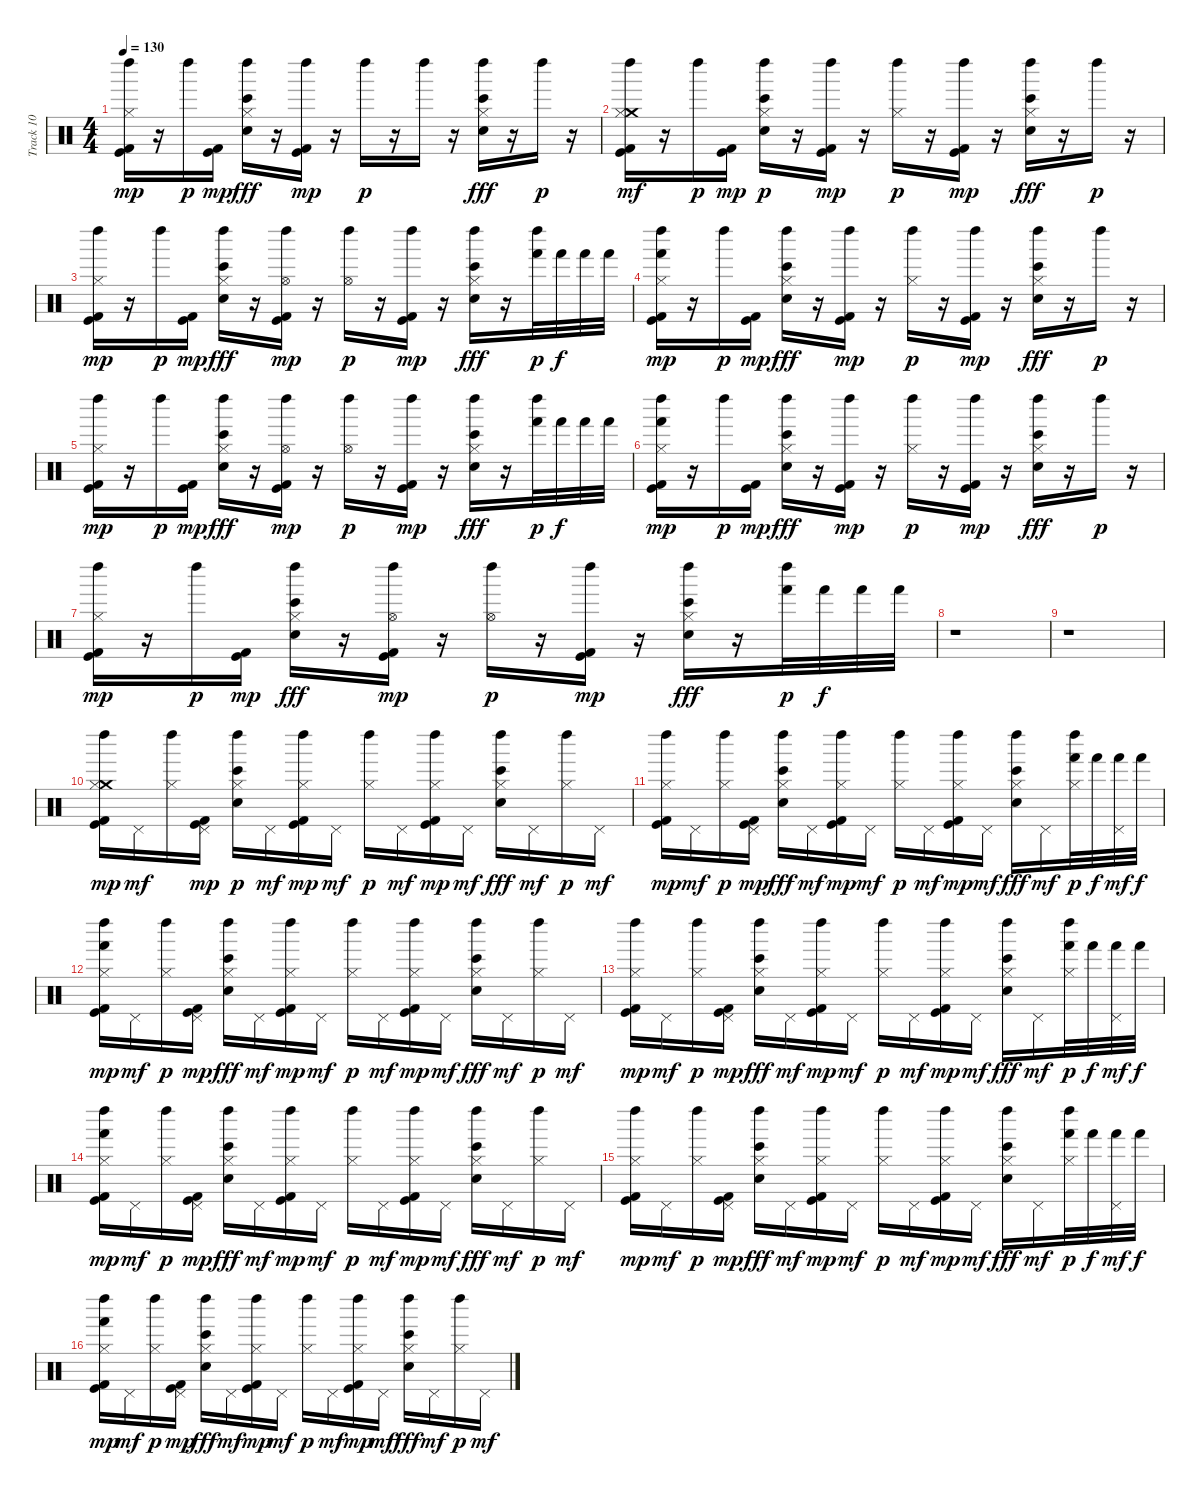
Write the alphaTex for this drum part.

\track ("Track 10" "Track 10") {instrument percussion}
\staff {score}
\articulation defaults
\ts (4 4)
\tempo 130
\clef neutral
\ks c
("Hi-Hat (closed)" "Left Maraca (hit)" "Kick (hit) 2" "Kick (hit)").16{dy mp} r.16 "Left Maraca (hit)".16{dy p} ("Kick (hit) 2" "Kick (hit)").16{dy mp} ("Hi-Hat (closed)" "Left Maraca (hit)" "Hand Clap (hit)" "Bongo High (hit)").16{dy fff} r.16 ("Left Maraca (hit)" "Kick (hit) 2" "Kick (hit)").16{dy mp} r.16 "Left Maraca (hit)".16{dy p} r.16 "Left Maraca (hit)".16 r.16 ("Hi-Hat (closed)" "Left Maraca (hit)" "Hand Clap (hit)" "Bongo High (hit)").16{dy fff} r.16 "Left Maraca (hit)".16{dy p} r.16 |
("Crash medium (hit)" "Left Maraca (hit)" "Kick (hit)" "Kick (hit) 2" "Hi-Hat (closed)").16{dy mf} r.16 "Left Maraca (hit)".16{dy p} ("Kick (hit) 2" "Kick (hit)").16{dy mp} ("Hand Clap (hit)" "Bongo High (hit)" "Hi-Hat (closed)" "Left Maraca (hit)").16{dy p} r.16 ("Left Maraca (hit)" "Kick (hit) 2" "Kick (hit)").16{dy mp} r.16 ("Hi-Hat (closed)" "Left Maraca (hit)").16{dy p} r.16 ("Left Maraca (hit)" "Kick (hit) 2" "Kick (hit)").16{dy mp} r.16 ("Hi-Hat (closed)" "Left Maraca (hit)" "Hand Clap (hit)" "Bongo High (hit)").16{dy fff} r.16 "Left Maraca (hit)".16{dy p} r.16 |
("Hi-Hat (closed)" "Left Maraca (hit)" "Kick (hit) 2" "Kick (hit)").16{dy mp} r.16 "Left Maraca (hit)".16{dy p} ("Kick (hit) 2" "Kick (hit)").16{dy mp} ("Hi-Hat (closed)" "Left Maraca (hit)" "Hand Clap (hit)" "Bongo High (hit)").16{dy fff} r.16 ("Hi-Hat (open)" "Left Maraca (hit)" "Kick (hit) 2" "Kick (hit)").16{dy mp} r.16 ("Hi-Hat (open)" "Left Maraca (hit)").16{dy p} r.16 ("Left Maraca (hit)" "Kick (hit) 2" "Kick (hit)").16{dy mp} r.16 ("Hi-Hat (closed)" "Left Maraca (hit)" "Hand Clap (hit)" "Bongo High (hit)").16{dy fff} r.16 ("Hand (hit)" "Left Maraca (hit)").32{dy p} "Hand (hit)".32{dy f} "Hand (hit)".32 "Hand (hit)".32 |
("Hand (hit)" "Hi-Hat (closed)" "Left Maraca (hit)" "Kick (hit) 2" "Kick (hit)").16{dy mp} r.16 "Left Maraca (hit)".16{dy p} ("Kick (hit) 2" "Kick (hit)").16{dy mp} ("Hi-Hat (closed)" "Left Maraca (hit)" "Hand Clap (hit)" "Bongo High (hit)").16{dy fff} r.16 ("Left Maraca (hit)" "Kick (hit) 2" "Kick (hit)").16{dy mp} r.16 ("Hi-Hat (closed)" "Left Maraca (hit)").16{dy p} r.16 ("Left Maraca (hit)" "Kick (hit) 2" "Kick (hit)").16{dy mp} r.16 ("Hi-Hat (closed)" "Left Maraca (hit)" "Hand Clap (hit)" "Bongo High (hit)").16{dy fff} r.16 "Left Maraca (hit)".16{dy p} r.16 |
("Hi-Hat (closed)" "Left Maraca (hit)" "Kick (hit) 2" "Kick (hit)").16{dy mp} r.16 "Left Maraca (hit)".16{dy p} ("Kick (hit) 2" "Kick (hit)").16{dy mp} ("Hi-Hat (closed)" "Left Maraca (hit)" "Hand Clap (hit)" "Bongo High (hit)").16{dy fff} r.16 ("Hi-Hat (open)" "Left Maraca (hit)" "Kick (hit) 2" "Kick (hit)").16{dy mp} r.16 ("Hi-Hat (open)" "Left Maraca (hit)").16{dy p} r.16 ("Left Maraca (hit)" "Kick (hit) 2" "Kick (hit)").16{dy mp} r.16 ("Hi-Hat (closed)" "Left Maraca (hit)" "Hand Clap (hit)" "Bongo High (hit)").16{dy fff} r.16 ("Hand (hit)" "Left Maraca (hit)").32{dy p} "Hand (hit)".32{dy f} "Hand (hit)".32 "Hand (hit)".32 |
("Hand (hit)" "Hi-Hat (closed)" "Left Maraca (hit)" "Kick (hit) 2" "Kick (hit)").16{dy mp} r.16 "Left Maraca (hit)".16{dy p} ("Kick (hit) 2" "Kick (hit)").16{dy mp} ("Hi-Hat (closed)" "Left Maraca (hit)" "Hand Clap (hit)" "Bongo High (hit)").16{dy fff} r.16 ("Left Maraca (hit)" "Kick (hit) 2" "Kick (hit)").16{dy mp} r.16 ("Hi-Hat (closed)" "Left Maraca (hit)").16{dy p} r.16 ("Left Maraca (hit)" "Kick (hit) 2" "Kick (hit)").16{dy mp} r.16 ("Hi-Hat (closed)" "Left Maraca (hit)" "Hand Clap (hit)" "Bongo High (hit)").16{dy fff} r.16 "Left Maraca (hit)".16{dy p} r.16 |
("Hi-Hat (closed)" "Left Maraca (hit)" "Kick (hit) 2" "Kick (hit)").16{dy mp} r.16 "Left Maraca (hit)".16{dy p} ("Kick (hit) 2" "Kick (hit)").16{dy mp} ("Hi-Hat (closed)" "Left Maraca (hit)" "Hand Clap (hit)" "Bongo High (hit)").16{dy fff} r.16 ("Hi-Hat (open)" "Left Maraca (hit)" "Kick (hit) 2" "Kick (hit)").16{dy mp} r.16 ("Hi-Hat (open)" "Left Maraca (hit)").16{dy p} r.16 ("Left Maraca (hit)" "Kick (hit) 2" "Kick (hit)").16{dy mp} r.16 ("Hi-Hat (closed)" "Left Maraca (hit)" "Hand Clap (hit)" "Bongo High (hit)").16{dy fff} r.16 ("Hand (hit)" "Left Maraca (hit)").32{dy p} "Hand (hit)".32{dy f} "Hand (hit)".32 "Hand (hit)".32 |
r.1 |
r.1 |
("Crash medium (hit)" "Hi-Hat (closed)" "Left Maraca (hit)" "Kick (hit) 2" "Kick (hit)").16{dy mp} "Pedal Hi-Hat (hit)".16{dy mf} ("Left Maraca (hit)" "Hi-Hat (closed)").16 ("Pedal Hi-Hat (hit)" "Kick (hit) 2" "Kick (hit)").16{dy mp} ("Hand Clap (hit)" "Bongo High (hit)" "Hi-Hat (closed)" "Left Maraca (hit)").16{dy p} "Pedal Hi-Hat (hit)".16{dy mf} ("Hi-Hat (closed)" "Left Maraca (hit)" "Kick (hit) 2" "Kick (hit)").16{dy mp} "Pedal Hi-Hat (hit)".16{dy mf} ("Hi-Hat (closed)" "Left Maraca (hit)").16{dy p} "Pedal Hi-Hat (hit)".16{dy mf} ("Hi-Hat (closed)" "Left Maraca (hit)" "Kick (hit) 2" "Kick (hit)").16{dy mp} "Pedal Hi-Hat (hit)".16{dy mf} ("Hi-Hat (closed)" "Left Maraca (hit)" "Hand Clap (hit)" "Bongo High (hit)").16{dy fff} "Pedal Hi-Hat (hit)".16{dy mf} ("Hi-Hat (closed)" "Left Maraca (hit)").16{dy p} "Pedal Hi-Hat (hit)".16{dy mf} |
("Hi-Hat (closed)" "Left Maraca (hit)" "Kick (hit) 2" "Kick (hit)").16{dy mp} "Pedal Hi-Hat (hit)".16{dy mf} ("Hi-Hat (closed)" "Left Maraca (hit)").16{dy p} ("Pedal Hi-Hat (hit)" "Kick (hit) 2" "Kick (hit)").16{dy mp} ("Hi-Hat (closed)" "Left Maraca (hit)" "Hand Clap (hit)" "Bongo High (hit)").16{dy fff} "Pedal Hi-Hat (hit)".16{dy mf} ("Hi-Hat (closed)" "Left Maraca (hit)" "Kick (hit) 2" "Kick (hit)").16{dy mp} "Pedal Hi-Hat (hit)".16{dy mf} ("Hi-Hat (closed)" "Left Maraca (hit)").16{dy p} "Pedal Hi-Hat (hit)".16{dy mf} ("Hi-Hat (closed)" "Left Maraca (hit)" "Kick (hit) 2" "Kick (hit)").16{dy mp} "Pedal Hi-Hat (hit)".16{dy mf} ("Hi-Hat (closed)" "Left Maraca (hit)" "Hand Clap (hit)" "Bongo High (hit)").16{dy fff} "Pedal Hi-Hat (hit)".16{dy mf} ("Hi-Hat (closed)" "Hand (hit)" "Left Maraca (hit)").32{dy p} "Hand (hit)".32{dy f} ("Pedal Hi-Hat (hit)" "Hand (hit)").32{dy mf} "Hand (hit)".32{dy f} |
("Hand (hit)" "Hi-Hat (closed)" "Left Maraca (hit)" "Kick (hit) 2" "Kick (hit)").16{dy mp} "Pedal Hi-Hat (hit)".16{dy mf} ("Hi-Hat (closed)" "Left Maraca (hit)").16{dy p} ("Pedal Hi-Hat (hit)" "Kick (hit) 2" "Kick (hit)").16{dy mp} ("Hi-Hat (closed)" "Left Maraca (hit)" "Hand Clap (hit)" "Bongo High (hit)").16{dy fff} "Pedal Hi-Hat (hit)".16{dy mf} ("Hi-Hat (closed)" "Left Maraca (hit)" "Kick (hit) 2" "Kick (hit)").16{dy mp} "Pedal Hi-Hat (hit)".16{dy mf} ("Hi-Hat (closed)" "Left Maraca (hit)").16{dy p} "Pedal Hi-Hat (hit)".16{dy mf} ("Hi-Hat (closed)" "Left Maraca (hit)" "Kick (hit) 2" "Kick (hit)").16{dy mp} "Pedal Hi-Hat (hit)".16{dy mf} ("Hi-Hat (closed)" "Left Maraca (hit)" "Hand Clap (hit)" "Bongo High (hit)").16{dy fff} "Pedal Hi-Hat (hit)".16{dy mf} ("Hi-Hat (closed)" "Left Maraca (hit)").16{dy p} "Pedal Hi-Hat (hit)".16{dy mf} |
("Hi-Hat (closed)" "Left Maraca (hit)" "Kick (hit) 2" "Kick (hit)").16{dy mp} "Pedal Hi-Hat (hit)".16{dy mf} ("Hi-Hat (closed)" "Left Maraca (hit)").16{dy p} ("Pedal Hi-Hat (hit)" "Kick (hit) 2" "Kick (hit)").16{dy mp} ("Hi-Hat (closed)" "Left Maraca (hit)" "Hand Clap (hit)" "Bongo High (hit)").16{dy fff} "Pedal Hi-Hat (hit)".16{dy mf} ("Hi-Hat (closed)" "Left Maraca (hit)" "Kick (hit) 2" "Kick (hit)").16{dy mp} "Pedal Hi-Hat (hit)".16{dy mf} ("Hi-Hat (closed)" "Left Maraca (hit)").16{dy p} "Pedal Hi-Hat (hit)".16{dy mf} ("Hi-Hat (closed)" "Left Maraca (hit)" "Kick (hit) 2" "Kick (hit)").16{dy mp} "Pedal Hi-Hat (hit)".16{dy mf} ("Hi-Hat (closed)" "Left Maraca (hit)" "Hand Clap (hit)" "Bongo High (hit)").16{dy fff} "Pedal Hi-Hat (hit)".16{dy mf} ("Hi-Hat (closed)" "Hand (hit)" "Left Maraca (hit)").32{dy p} "Hand (hit)".32{dy f} ("Pedal Hi-Hat (hit)" "Hand (hit)").32{dy mf} "Hand (hit)".32{dy f} |
("Hand (hit)" "Hi-Hat (closed)" "Left Maraca (hit)" "Kick (hit) 2" "Kick (hit)").16{dy mp} "Pedal Hi-Hat (hit)".16{dy mf} ("Hi-Hat (closed)" "Left Maraca (hit)").16{dy p} ("Pedal Hi-Hat (hit)" "Kick (hit) 2" "Kick (hit)").16{dy mp} ("Hi-Hat (closed)" "Left Maraca (hit)" "Hand Clap (hit)" "Bongo High (hit)").16{dy fff} "Pedal Hi-Hat (hit)".16{dy mf} ("Hi-Hat (closed)" "Left Maraca (hit)" "Kick (hit) 2" "Kick (hit)").16{dy mp} "Pedal Hi-Hat (hit)".16{dy mf} ("Hi-Hat (closed)" "Left Maraca (hit)").16{dy p} "Pedal Hi-Hat (hit)".16{dy mf} ("Hi-Hat (closed)" "Left Maraca (hit)" "Kick (hit) 2" "Kick (hit)").16{dy mp} "Pedal Hi-Hat (hit)".16{dy mf} ("Hi-Hat (closed)" "Left Maraca (hit)" "Hand Clap (hit)" "Bongo High (hit)").16{dy fff} "Pedal Hi-Hat (hit)".16{dy mf} ("Hi-Hat (closed)" "Left Maraca (hit)").16{dy p} "Pedal Hi-Hat (hit)".16{dy mf} |
("Hi-Hat (closed)" "Left Maraca (hit)" "Kick (hit) 2" "Kick (hit)").16{dy mp} "Pedal Hi-Hat (hit)".16{dy mf} ("Hi-Hat (closed)" "Left Maraca (hit)").16{dy p} ("Pedal Hi-Hat (hit)" "Kick (hit) 2" "Kick (hit)").16{dy mp} ("Hi-Hat (closed)" "Left Maraca (hit)" "Hand Clap (hit)" "Bongo High (hit)").16{dy fff} "Pedal Hi-Hat (hit)".16{dy mf} ("Hi-Hat (closed)" "Left Maraca (hit)" "Kick (hit) 2" "Kick (hit)").16{dy mp} "Pedal Hi-Hat (hit)".16{dy mf} ("Hi-Hat (closed)" "Left Maraca (hit)").16{dy p} "Pedal Hi-Hat (hit)".16{dy mf} ("Hi-Hat (closed)" "Left Maraca (hit)" "Kick (hit) 2" "Kick (hit)").16{dy mp} "Pedal Hi-Hat (hit)".16{dy mf} ("Hi-Hat (closed)" "Left Maraca (hit)" "Hand Clap (hit)" "Bongo High (hit)").16{dy fff} "Pedal Hi-Hat (hit)".16{dy mf} ("Hi-Hat (closed)" "Hand (hit)" "Left Maraca (hit)").32{dy p} "Hand (hit)".32{dy f} ("Pedal Hi-Hat (hit)" "Hand (hit)").32{dy mf} "Hand (hit)".32{dy f} |
("Hand (hit)" "Hi-Hat (closed)" "Left Maraca (hit)" "Kick (hit) 2" "Kick (hit)").16{dy mp} "Pedal Hi-Hat (hit)".16{dy mf} ("Hi-Hat (closed)" "Left Maraca (hit)").16{dy p} ("Pedal Hi-Hat (hit)" "Kick (hit) 2" "Kick (hit)").16{dy mp} ("Hi-Hat (closed)" "Left Maraca (hit)" "Hand Clap (hit)" "Bongo High (hit)").16{dy fff} "Pedal Hi-Hat (hit)".16{dy mf} ("Hi-Hat (closed)" "Left Maraca (hit)" "Kick (hit) 2" "Kick (hit)").16{dy mp} "Pedal Hi-Hat (hit)".16{dy mf} ("Hi-Hat (closed)" "Left Maraca (hit)").16{dy p} "Pedal Hi-Hat (hit)".16{dy mf} ("Hi-Hat (closed)" "Left Maraca (hit)" "Kick (hit) 2" "Kick (hit)").16{dy mp} "Pedal Hi-Hat (hit)".16{dy mf} ("Hi-Hat (closed)" "Left Maraca (hit)" "Hand Clap (hit)" "Bongo High (hit)").16{dy fff} "Pedal Hi-Hat (hit)".16{dy mf} ("Hi-Hat (closed)" "Left Maraca (hit)").16{dy p} "Pedal Hi-Hat (hit)".16{dy mf}
